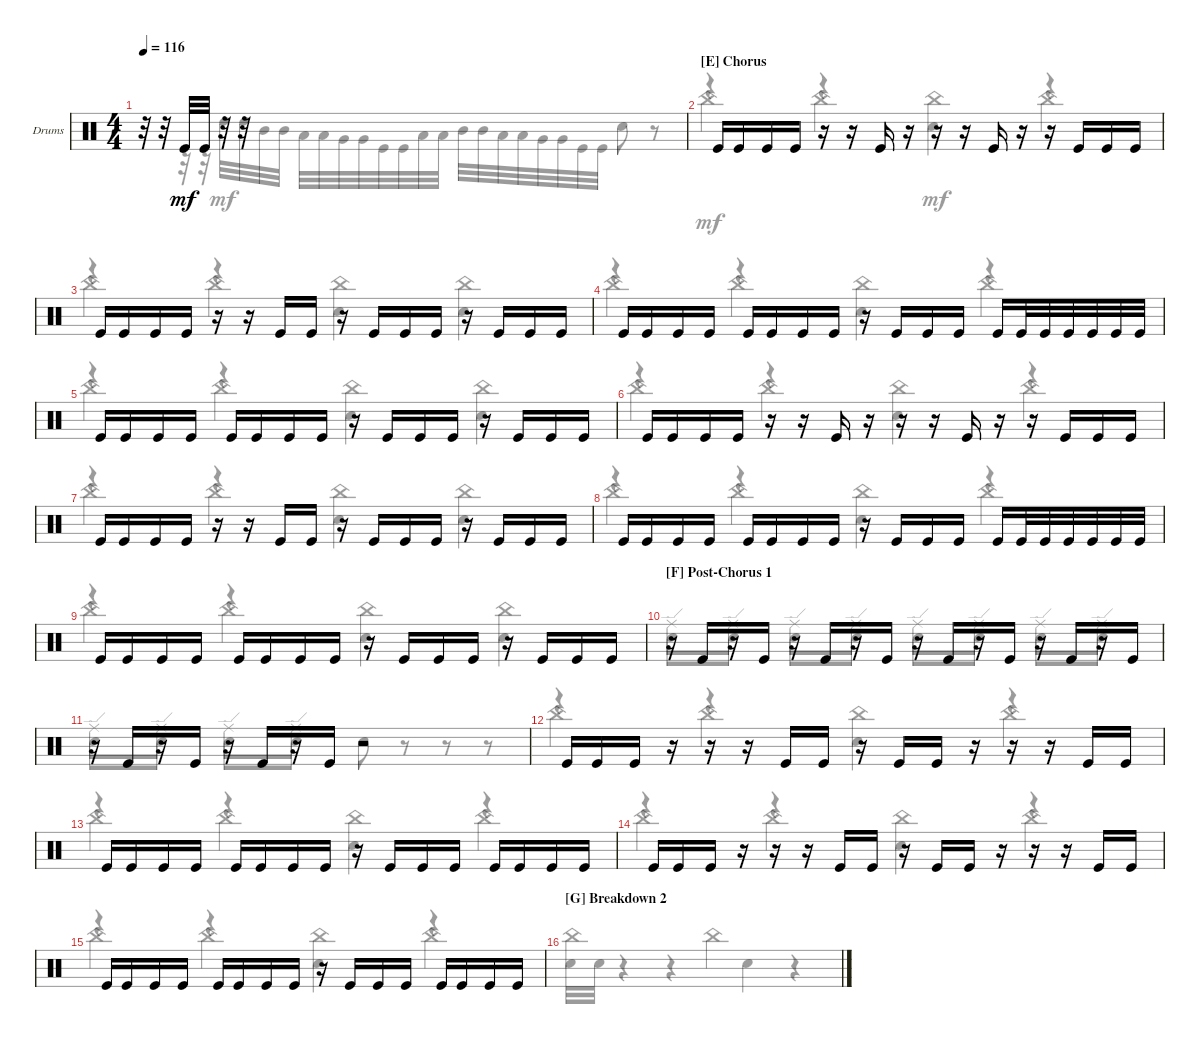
\defaultSystemsLayout 4
\bracketExtendMode groupsimilarinstruments
\firstSystemTrackNameOrientation horizontal
\otherSystemsTrackNameOrientation horizontal
\track ("Drumkit" "Drums") {instrument percussion}
\staff {score}
\articulation defaults
\voice
\ts (4 4)
\tempo 116
\clef neutral
\ks c
r.32{dy mf} r.32 "Kick (hit)".32 "Kick (hit)".32 r.32 r.32 |
\section ("E" "Chorus")
"Kick (hit)".16 "Kick (hit)".16 "Kick (hit)".16 "Kick (hit)".16 r.16 r.16 "Kick (hit)".16 r.16 r.16 r.16 "Kick (hit)".16 r.16 r.16 "Kick (hit)".16 "Kick (hit)".16 "Kick (hit)".16 |
"Kick (hit)".16 "Kick (hit)".16 "Kick (hit)".16 "Kick (hit)".16 r.16 r.16 "Kick (hit)".16 "Kick (hit)".16 r.16 "Kick (hit)".16 "Kick (hit)".16 "Kick (hit)".16 r.16 "Kick (hit)".16 "Kick (hit)".16 "Kick (hit)".16 |
"Kick (hit)".16 "Kick (hit)".16 "Kick (hit)".16 "Kick (hit)".16 "Kick (hit)".16 "Kick (hit)".16 "Kick (hit)".16 "Kick (hit)".16 r.16 "Kick (hit)".16 "Kick (hit)".16 "Kick (hit)".16 "Kick (hit)".16 "Kick (hit)".32 "Kick (hit)".32 "Kick (hit)".32 "Kick (hit)".32 "Kick (hit)".32 "Kick (hit)".32 |
"Kick (hit)".16 "Kick (hit)".16 "Kick (hit)".16 "Kick (hit)".16 "Kick (hit)".16 "Kick (hit)".16 "Kick (hit)".16 "Kick (hit)".16 r.16 "Kick (hit)".16 "Kick (hit)".16 "Kick (hit)".16 r.16 "Kick (hit)".16 "Kick (hit)".16 "Kick (hit)".16 |
"Kick (hit)".16 "Kick (hit)".16 "Kick (hit)".16 "Kick (hit)".16 r.16 r.16 "Kick (hit)".16 r.16 r.16 r.16 "Kick (hit)".16 r.16 r.16 "Kick (hit)".16 "Kick (hit)".16 "Kick (hit)".16 |
"Kick (hit)".16 "Kick (hit)".16 "Kick (hit)".16 "Kick (hit)".16 r.16 r.16 "Kick (hit)".16 "Kick (hit)".16 r.16 "Kick (hit)".16 "Kick (hit)".16 "Kick (hit)".16 r.16 "Kick (hit)".16 "Kick (hit)".16 "Kick (hit)".16 |
"Kick (hit)".16 "Kick (hit)".16 "Kick (hit)".16 "Kick (hit)".16 "Kick (hit)".16 "Kick (hit)".16 "Kick (hit)".16 "Kick (hit)".16 r.16 "Kick (hit)".16 "Kick (hit)".16 "Kick (hit)".16 "Kick (hit)".16 "Kick (hit)".32 "Kick (hit)".32 "Kick (hit)".32 "Kick (hit)".32 "Kick (hit)".32 "Kick (hit)".32 |
"Kick (hit)".16 "Kick (hit)".16 "Kick (hit)".16 "Kick (hit)".16 "Kick (hit)".16 "Kick (hit)".16 "Kick (hit)".16 "Kick (hit)".16 r.16 "Kick (hit)".16 "Kick (hit)".16 "Kick (hit)".16 r.16 "Kick (hit)".16 "Kick (hit)".16 "Kick (hit)".16 |
\section ("F" "Post-Chorus 1")
r.16 "Kick (hit)".16 r.16 "Kick (hit)".16 r.16 "Kick (hit)".16 r.16 "Kick (hit)".16 r.16 "Kick (hit)".16 r.16 "Kick (hit)".16 r.16 "Kick (hit)".16 r.16 "Kick (hit)".16 |
r.16 "Kick (hit)".16 r.16 "Kick (hit)".16 r.16 "Kick (hit)".16 r.16 "Kick (hit)".16 r.2 |
"Kick (hit)".16 "Kick (hit)".16 "Kick (hit)".16 r.16 r.16 r.16 "Kick (hit)".16 "Kick (hit)".16 r.16 "Kick (hit)".16 "Kick (hit)".16 r.16 r.16 r.16 "Kick (hit)".16 "Kick (hit)".16 |
"Kick (hit)".16 "Kick (hit)".16 "Kick (hit)".16 "Kick (hit)".16 "Kick (hit)".16 "Kick (hit)".16 "Kick (hit)".16 "Kick (hit)".16 r.16 "Kick (hit)".16 "Kick (hit)".16 "Kick (hit)".16 "Kick (hit)".16 "Kick (hit)".16 "Kick (hit)".16 "Kick (hit)".16 |
"Kick (hit)".16 "Kick (hit)".16 "Kick (hit)".16 r.16 r.16 r.16 "Kick (hit)".16 "Kick (hit)".16 r.16 "Kick (hit)".16 "Kick (hit)".16 r.16 r.16 r.16 "Kick (hit)".16 "Kick (hit)".16 |
"Kick (hit)".16 "Kick (hit)".16 "Kick (hit)".16 "Kick (hit)".16 "Kick (hit)".16 "Kick (hit)".16 "Kick (hit)".16 "Kick (hit)".16 r.16 "Kick (hit)".16 "Kick (hit)".16 "Kick (hit)".16 "Kick (hit)".16 "Kick (hit)".16 "Kick (hit)".16 "Kick (hit)".16 |
\section ("G" "Breakdown 2")
\voice
\clef neutral
\ottava regular
\simile none
\ks c "Snare (hit) 2".32{dy mf} "Snare (hit) 2".32
|
r.4 r.4 "Snare (hit) 2".4 r.4 |
r.4 r.4 "Snare (hit) 2".4 "Snare (hit) 2".4 |
r.4 r.4 "Snare (hit) 2".4 r.4 |
r.4 r.4 "Snare (hit) 2".4 "Snare (hit) 2".4 |
r.4 r.4 "Snare (hit) 2".4 r.4 |
r.4 r.4 "Snare (hit) 2".4 "Snare (hit) 2".4 |
r.4 r.4 "Snare (hit) 2".4 r.4 |
r.4 r.4 "Snare (hit) 2".4 "Snare (hit) 2".4 |
"Snare (hit) 2".8 "Snare (hit) 2".8 "Snare (hit) 2".8 "Snare (hit) 2".8 "Snare (hit) 2".8 "Snare (hit) 2".8 "Snare (hit) 2".8 "Snare (hit) 2".8 |
"Snare (hit) 2".8 "Snare (hit) 2".8 "Snare (hit) 2".8 "Snare (hit) 2".8 "Snare (hit) 2".8 r.8 r.8 r.8 |
r.4 r.4 "Snare (hit) 2".4 r.4 |
r.4 r.4 "Snare (hit) 2".4 r.4 |
r.4 r.4 "Snare (hit) 2".4 r.4 |
r.4 r.4 "Snare (hit) 2".4 r.4 |
r.4 r.4 "Snare (hit) 2".4 r.4
\voice
\clef neutral
\ottava regular
\simile none
\ks c
|
"China (hit)".4 "China (hit)".4 "China (hit)".4 "China (hit)".4 |
"China (hit)".4 "China (hit)".4 "China (hit)".4 "China (hit)".4 |
"China (hit)".4 "China (hit)".4 "China (hit)".4 "China (hit)".4 |
"China (hit)".4 "China (hit)".4 "China (hit)".4 "China (hit)".4 |
"China (hit)".4 "China (hit)".4 "China (hit)".4 "China (hit)".4 |
"China (hit)".4 "China (hit)".4 "China (hit)".4 "China (hit)".4 |
"China (hit)".4 "China (hit)".4 "China (hit)".4 "China (hit)".4 |
"China (hit)".4 "China (hit)".4 "China (hit)".4 "China (hit)".4 |
"Ride (edge)".8 "Ride (edge)".8 "Ride (edge)".8 "Ride (edge)".8 "Ride (edge)".8 "Ride (edge)".8 "Ride (edge)".8 "Ride (edge)".8 |
"Ride (edge)".8 "Ride (edge)".8 "Ride (edge)".8 "Ride (edge)".8 r.2 |
"China (hit)".4 "China (hit)".4 "China (hit)".4 "China (hit)".4 |
"China (hit)".4 "China (hit)".4 "China (hit)".4 "China (hit)".4 |
"China (hit)".4 "China (hit)".4 "China (hit)".4 "China (hit)".4 |
"China (hit)".4 "China (hit)".4 "China (hit)".4 "China (hit)".4 |
"China (hit)".2 "China (hit)".2
\voice
\clef neutral
\ottava regular
\simile none
\ks c
r.32{dy mf} r.32 r.32 r.32 "High Tom (hit)".32 "High Tom (hit)".32 "Mid Tom (hit)".32 "Mid Tom (hit)".32 "Low Tom (hit)".32 "Low Tom (hit)".32 "Very Low Tom (hit)".32 "Very Low Tom (hit)".32 "Kick (hit)".32 "Kick (hit)".32 "Low Tom (hit)".32 "Low Tom (hit)".32 "Mid Tom (hit)".32 "Mid Tom (hit)".32 "Low Tom (hit)".32 "Low Tom (hit)".32 "Very Low Tom (hit)".32 "Very Low Tom (hit)".32 "Kick (hit)".32 "Kick (hit)".32 "Snare (hit) 2".8 r.8 |
|
|
|
|
|
|
|
|
|
|
|
|
|
|
